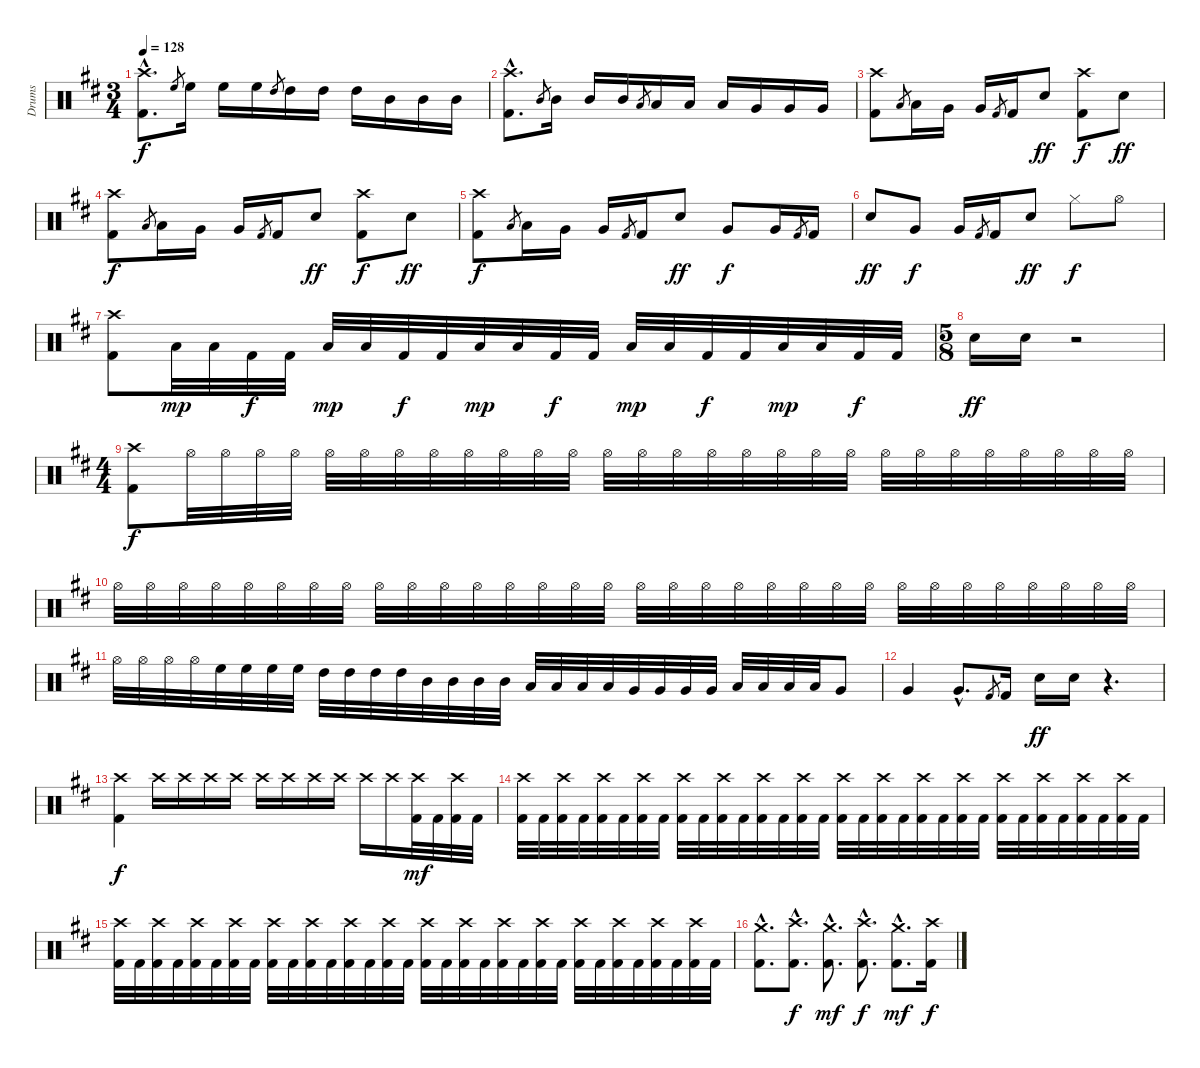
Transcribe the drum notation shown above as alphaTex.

\track ("Drums" "Drums") {instrument percussion}
\staff {score}
\articulation defaults
\ts (3 4)
\tempo 128
\clef neutral
\ks d
("Kick (hit) 2" "Crash high (hit)"{hac}).8{d dy f} "High Floor Tom (hit)".8{gr} "High Floor Tom (hit)".16 "High Floor Tom (hit)".16 "High Floor Tom (hit)".16 "High Tom (hit)".8{gr} "High Tom (hit)".16 "High Tom (hit)".16 "High Tom (hit)".16 "Mid Tom (hit)".16 "Mid Tom (hit)".16 "Mid Tom (hit)".16 |
("Kick (hit) 2"{hac} "Crash high (hit)"{hac}).8{d} "Mid Tom (hit)".8{gr} "Mid Tom (hit)".16 "Mid Tom (hit)".16 "Mid Tom (hit)".16 "Low Tom (hit)".8{gr} "Low Tom (hit)".16 "Low Tom (hit)".16 "Low Tom (hit)".16 "Very Low Tom (hit)".16 "Very Low Tom (hit)".16 "Very Low Tom (hit)".16 |
("Kick (hit) 2" "Crash high (hit)").8 "Low Tom (hit)".8{gr} "Low Tom (hit)".16 "Very Low Tom (hit)".16 "Very Low Tom (hit)".16 "Kick (hit) 2".8{gr} "Kick (hit) 2".16 "Electric Snare (hit)".8{dy ff} ("Kick (hit) 2" "Crash high (hit)").8{dy f} "Electric Snare (hit)".8{dy ff} |
("Kick (hit) 2" "Crash high (hit)").8{dy f} "Low Tom (hit)".8{gr} "Low Tom (hit)".16 "Very Low Tom (hit)".16 "Very Low Tom (hit)".16 "Kick (hit) 2".8{gr} "Kick (hit) 2".16 "Electric Snare (hit)".8{dy ff} ("Kick (hit) 2" "Crash high (hit)").8{dy f} "Electric Snare (hit)".8{dy ff} |
("Kick (hit) 2" "Crash high (hit)").8{dy f} "Low Tom (hit)".8{gr} "Low Tom (hit)".16 "Very Low Tom (hit)".16 "Very Low Tom (hit)".16 "Kick (hit) 2".8{gr} "Kick (hit) 2".16 "Electric Snare (hit)".8{dy ff} "Very Low Tom (hit)".8{dy f} "Very Low Tom (hit)".16 "Kick (hit) 2".8{gr} "Kick (hit) 2".16 |
"Electric Snare (hit)".8{dy ff} "Very Low Tom (hit)".8{dy f} "Very Low Tom (hit)".16 "Kick (hit) 2".8{gr} "Kick (hit) 2".16 "Electric Snare (hit)".8{dy ff} "Hi-Hat (closed)".8{dy f} "Hi-Hat (open)".8 |
("Kick (hit) 2" "Crash high (hit)").8 "Low Floor Tom (hit)".32{dy mp} "Low Floor Tom (hit)".32 "Kick (hit) 2".32{dy f} "Kick (hit) 2".32 "Low Floor Tom (hit)".32{dy mp} "Low Floor Tom (hit)".32 "Kick (hit) 2".32{dy f} "Kick (hit) 2".32 "Low Floor Tom (hit)".32{dy mp} "Low Floor Tom (hit)".32 "Kick (hit) 2".32{dy f} "Kick (hit) 2".32 "Low Floor Tom (hit)".32{dy mp} "Low Floor Tom (hit)".32 "Kick (hit) 2".32{dy f} "Kick (hit) 2".32 "Low Floor Tom (hit)".32{dy mp} "Low Floor Tom (hit)".32 "Kick (hit) 2".32{dy f} "Kick (hit) 2".32 |
\ts (5 8)
"Electric Snare (hit)".16{dy ff} "Electric Snare (hit)".16 r.2 |
\ts (4 4)
("Kick (hit) 2" "Crash high (hit)").8{dy f} "Hi-Hat (open)".32 "Hi-Hat (open)".32 "Hi-Hat (open)".32 "Hi-Hat (open)".32 "Hi-Hat (open)".32 "Hi-Hat (open)".32 "Hi-Hat (open)".32 "Hi-Hat (open)".32 "Hi-Hat (open)".32 "Hi-Hat (open)".32 "Hi-Hat (open)".32 "Hi-Hat (open)".32 "Hi-Hat (open)".32 "Hi-Hat (open)".32 "Hi-Hat (open)".32 "Hi-Hat (open)".32 "Hi-Hat (open)".32 "Hi-Hat (open)".32 "Hi-Hat (open)".32 "Hi-Hat (open)".32 "Hi-Hat (open)".32 "Hi-Hat (open)".32 "Hi-Hat (open)".32 "Hi-Hat (open)".32 "Hi-Hat (open)".32 "Hi-Hat (open)".32 "Hi-Hat (open)".32 "Hi-Hat (open)".32 |
"Hi-Hat (open)".32 "Hi-Hat (open)".32 "Hi-Hat (open)".32 "Hi-Hat (open)".32 "Hi-Hat (open)".32 "Hi-Hat (open)".32 "Hi-Hat (open)".32 "Hi-Hat (open)".32 "Hi-Hat (open)".32 "Hi-Hat (open)".32 "Hi-Hat (open)".32 "Hi-Hat (open)".32 "Hi-Hat (open)".32 "Hi-Hat (open)".32 "Hi-Hat (open)".32 "Hi-Hat (open)".32 "Hi-Hat (open)".32 "Hi-Hat (open)".32 "Hi-Hat (open)".32 "Hi-Hat (open)".32 "Hi-Hat (open)".32 "Hi-Hat (open)".32 "Hi-Hat (open)".32 "Hi-Hat (open)".32 "Hi-Hat (open)".32 "Hi-Hat (open)".32 "Hi-Hat (open)".32 "Hi-Hat (open)".32 "Hi-Hat (open)".32 "Hi-Hat (open)".32 "Hi-Hat (open)".32 "Hi-Hat (open)".32 |
"Hi-Hat (open)".32 "Hi-Hat (open)".32 "Hi-Hat (open)".32 "Hi-Hat (open)".32 "High Floor Tom (hit)".32 "High Floor Tom (hit)".32 "High Floor Tom (hit)".32 "High Floor Tom (hit)".32 "High Tom (hit)".32 "High Tom (hit)".32 "High Tom (hit)".32 "High Tom (hit)".32 "Mid Tom (hit)".32 "Mid Tom (hit)".32 "Mid Tom (hit)".32 "Mid Tom (hit)".32 "Low Tom (hit)".32 "Low Tom (hit)".32 "Low Tom (hit)".32 "Low Tom (hit)".32 "Very Low Tom (hit)".32 "Very Low Tom (hit)".32 "Very Low Tom (hit)".32 "Very Low Tom (hit)".32 "Low Floor Tom (hit)".32 "Low Floor Tom (hit)".32 "Low Floor Tom (hit)".32 "Low Floor Tom (hit)".32 "Very Low Tom (hit)".8 |
"Very Low Tom (hit)".4 "Very Low Tom (hit)"{hac}.8{d} "Kick (hit) 2".8{gr} "Kick (hit) 2".16 "Electric Snare (hit)".16{dy ff} "Electric Snare (hit)".16 r.4{d} |
("Kick (hit) 2" "Crash high (hit)").4{dy f} "Crash high (hit)".16 "Crash high (hit)".16 "Crash high (hit)".16 "Crash high (hit)".16 "Crash high (hit)".16 "Crash high (hit)".16 "Crash high (hit)".16 "Crash high (hit)".16 "Crash high (hit)".16 "Crash high (hit)".16 ("Kick (hit) 2" "Crash high (hit)").32{dy mf} "Kick (hit) 2".32 ("Kick (hit) 2" "Crash high (hit)").32 "Kick (hit) 2".32 |
("Kick (hit) 2" "Crash high (hit)").32 "Kick (hit) 2".32 ("Kick (hit) 2" "Crash high (hit)").32 "Kick (hit) 2".32 ("Kick (hit) 2" "Crash high (hit)").32 "Kick (hit) 2".32 ("Kick (hit) 2" "Crash high (hit)").32 "Kick (hit) 2".32 ("Kick (hit) 2" "Crash high (hit)").32 "Kick (hit) 2".32 ("Kick (hit) 2" "Crash high (hit)").32 "Kick (hit) 2".32 ("Kick (hit) 2" "Crash high (hit)").32 "Kick (hit) 2".32 ("Kick (hit) 2" "Crash high (hit)").32 "Kick (hit) 2".32 ("Kick (hit) 2" "Crash high (hit)").32 "Kick (hit) 2".32 ("Kick (hit) 2" "Crash high (hit)").32 "Kick (hit) 2".32 ("Kick (hit) 2" "Crash high (hit)").32 "Kick (hit) 2".32 ("Kick (hit) 2" "Crash high (hit)").32 "Kick (hit) 2".32 ("Kick (hit) 2" "Crash high (hit)").32 "Kick (hit) 2".32 ("Kick (hit) 2" "Crash high (hit)").32 "Kick (hit) 2".32 ("Kick (hit) 2" "Crash high (hit)").32 "Kick (hit) 2".32 ("Kick (hit) 2" "Crash high (hit)").32 "Kick (hit) 2".32 |
("Kick (hit) 2" "Crash high (hit)").32 "Kick (hit) 2".32 ("Kick (hit) 2" "Crash high (hit)").32 "Kick (hit) 2".32 ("Kick (hit) 2" "Crash high (hit)").32 "Kick (hit) 2".32 ("Kick (hit) 2" "Crash high (hit)").32 "Kick (hit) 2".32 ("Kick (hit) 2" "Crash high (hit)").32 "Kick (hit) 2".32 ("Kick (hit) 2" "Crash high (hit)").32 "Kick (hit) 2".32 ("Kick (hit) 2" "Crash high (hit)").32 "Kick (hit) 2".32 ("Kick (hit) 2" "Crash high (hit)").32 "Kick (hit) 2".32 ("Kick (hit) 2" "Crash high (hit)").32 "Kick (hit) 2".32 ("Kick (hit) 2" "Crash high (hit)").32 "Kick (hit) 2".32 ("Kick (hit) 2" "Crash high (hit)").32 "Kick (hit) 2".32 ("Kick (hit) 2" "Crash high (hit)").32 "Kick (hit) 2".32 ("Kick (hit) 2" "Crash high (hit)").32 "Kick (hit) 2".32 ("Kick (hit) 2" "Crash high (hit)").32 "Kick (hit) 2".32 ("Kick (hit) 2" "Crash high (hit)").32 "Kick (hit) 2".32 ("Kick (hit) 2" "Crash high (hit)").32 "Kick (hit) 2".32 |
("Kick (hit) 2"{hac} "Crash medium (hit)"{hac}).8{d} ("Kick (hit) 2"{hac} "Crash high (hit)"{hac}).8{d dy f} ("Kick (hit) 2" "Crash medium (hit)"{hac}).8{d dy mf} ("Kick (hit) 2" "Crash high (hit)"{hac}).8{d dy f} ("Kick (hit) 2"{hac} "Crash medium (hit)"{hac}).8{d dy mf} ("Kick (hit) 2" "Crash high (hit)").16{dy f}
